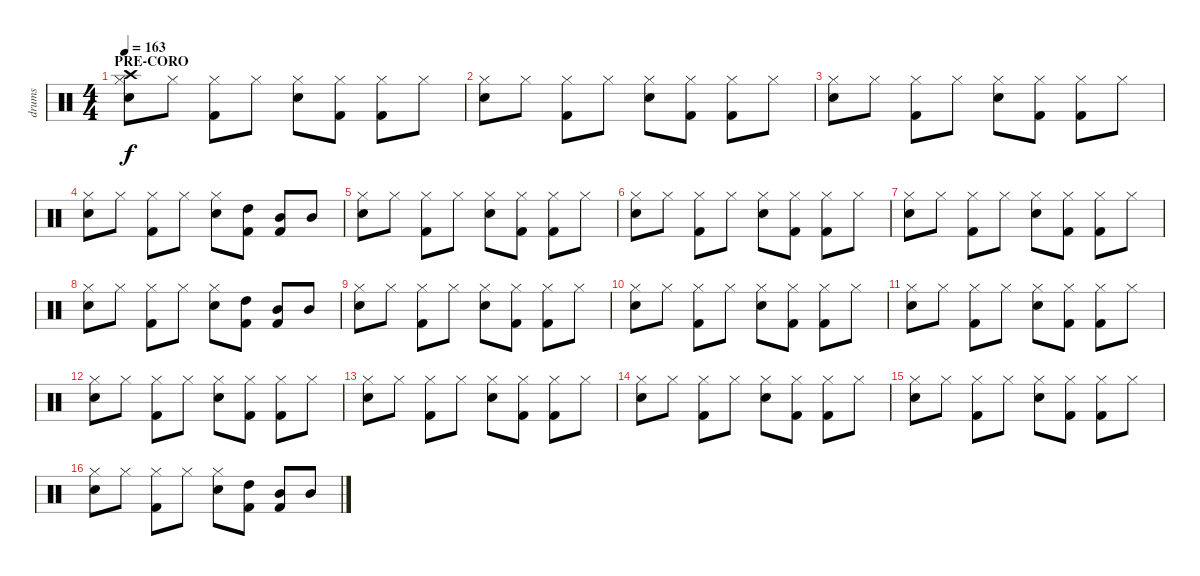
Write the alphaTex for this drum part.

\track ("drums" "drums") {instrument percussion}
\staff {score}
\articulation defaults
\ts (4 4)
\section ("" "PRE-CORO")
\tempo 163
\clef neutral
\ks c
("Crash high (hit)" "Hi-Hat (closed)" "Electric Snare (hit)").8{dy f} "Hi-Hat (closed)".8 ("Hi-Hat (closed)" "Kick (hit) 2").8 "Hi-Hat (closed)".8 ("Hi-Hat (closed)" "Electric Snare (hit)").8 ("Hi-Hat (closed)" "Kick (hit) 2").8 ("Hi-Hat (closed)" "Kick (hit) 2").8 "Hi-Hat (closed)".8 |
("Hi-Hat (closed)" "Electric Snare (hit)").8 "Hi-Hat (closed)".8 ("Hi-Hat (closed)" "Kick (hit) 2").8 "Hi-Hat (closed)".8 ("Hi-Hat (closed)" "Electric Snare (hit)").8 ("Hi-Hat (closed)" "Kick (hit) 2").8 ("Hi-Hat (closed)" "Kick (hit) 2").8 "Hi-Hat (closed)".8 |
("Hi-Hat (closed)" "Electric Snare (hit)").8 "Hi-Hat (closed)".8 ("Hi-Hat (closed)" "Kick (hit) 2").8 "Hi-Hat (closed)".8 ("Hi-Hat (closed)" "Electric Snare (hit)").8 ("Hi-Hat (closed)" "Kick (hit) 2").8 ("Hi-Hat (closed)" "Kick (hit) 2").8 "Hi-Hat (closed)".8 |
("Hi-Hat (closed)" "Electric Snare (hit)").8 "Hi-Hat (closed)".8 ("Hi-Hat (closed)" "Kick (hit) 2").8 "Hi-Hat (closed)".8 ("Hi-Hat (closed)" "Electric Snare (hit)").8 ("High Tom (hit)" "Kick (hit) 2").8 ("Mid Tom (hit)" "Kick (hit) 2").8 "Mid Tom (hit)".8 |
("Hi-Hat (closed)" "Electric Snare (hit)").8 "Hi-Hat (closed)".8 ("Hi-Hat (closed)" "Kick (hit) 2").8 "Hi-Hat (closed)".8 ("Hi-Hat (closed)" "Electric Snare (hit)").8 ("Hi-Hat (closed)" "Kick (hit) 2").8 ("Hi-Hat (closed)" "Kick (hit) 2").8 "Hi-Hat (closed)".8 |
("Hi-Hat (closed)" "Electric Snare (hit)").8 "Hi-Hat (closed)".8 ("Hi-Hat (closed)" "Kick (hit) 2").8 "Hi-Hat (closed)".8 ("Hi-Hat (closed)" "Electric Snare (hit)").8 ("Hi-Hat (closed)" "Kick (hit) 2").8 ("Hi-Hat (closed)" "Kick (hit) 2").8 "Hi-Hat (closed)".8 |
("Hi-Hat (closed)" "Electric Snare (hit)").8 "Hi-Hat (closed)".8 ("Hi-Hat (closed)" "Kick (hit) 2").8 "Hi-Hat (closed)".8 ("Hi-Hat (closed)" "Electric Snare (hit)").8 ("Hi-Hat (closed)" "Kick (hit) 2").8 ("Hi-Hat (closed)" "Kick (hit) 2").8 "Hi-Hat (closed)".8 |
("Hi-Hat (closed)" "Electric Snare (hit)").8 "Hi-Hat (closed)".8 ("Hi-Hat (closed)" "Kick (hit) 2").8 "Hi-Hat (closed)".8 ("Hi-Hat (closed)" "Electric Snare (hit)").8 ("High Tom (hit)" "Kick (hit) 2").8 ("Mid Tom (hit)" "Kick (hit) 2").8 "Mid Tom (hit)".8 |
("Hi-Hat (closed)" "Electric Snare (hit)").8 "Hi-Hat (closed)".8 ("Hi-Hat (closed)" "Kick (hit) 2").8 "Hi-Hat (closed)".8 ("Hi-Hat (closed)" "Electric Snare (hit)").8 ("Hi-Hat (closed)" "Kick (hit) 2").8 ("Hi-Hat (closed)" "Kick (hit) 2").8 "Hi-Hat (closed)".8 |
("Hi-Hat (closed)" "Electric Snare (hit)").8 "Hi-Hat (closed)".8 ("Hi-Hat (closed)" "Kick (hit) 2").8 "Hi-Hat (closed)".8 ("Hi-Hat (closed)" "Electric Snare (hit)").8 ("Hi-Hat (closed)" "Kick (hit) 2").8 ("Hi-Hat (closed)" "Kick (hit) 2").8 "Hi-Hat (closed)".8 |
("Hi-Hat (closed)" "Electric Snare (hit)").8 "Hi-Hat (closed)".8 ("Hi-Hat (closed)" "Kick (hit) 2").8 "Hi-Hat (closed)".8 ("Hi-Hat (closed)" "Electric Snare (hit)").8 ("Hi-Hat (closed)" "Kick (hit) 2").8 ("Hi-Hat (closed)" "Kick (hit) 2").8 "Hi-Hat (closed)".8 |
("Hi-Hat (closed)" "Electric Snare (hit)").8 "Hi-Hat (closed)".8 ("Hi-Hat (closed)" "Kick (hit) 2").8 "Hi-Hat (closed)".8 ("Hi-Hat (closed)" "Electric Snare (hit)").8 ("Hi-Hat (closed)" "Kick (hit) 2").8 ("Hi-Hat (closed)" "Kick (hit) 2").8 "Hi-Hat (closed)".8 |
("Hi-Hat (closed)" "Electric Snare (hit)").8 "Hi-Hat (closed)".8 ("Hi-Hat (closed)" "Kick (hit) 2").8 "Hi-Hat (closed)".8 ("Hi-Hat (closed)" "Electric Snare (hit)").8 ("Hi-Hat (closed)" "Kick (hit) 2").8 ("Hi-Hat (closed)" "Kick (hit) 2").8 "Hi-Hat (closed)".8 |
("Hi-Hat (closed)" "Electric Snare (hit)").8 "Hi-Hat (closed)".8 ("Hi-Hat (closed)" "Kick (hit) 2").8 "Hi-Hat (closed)".8 ("Hi-Hat (closed)" "Electric Snare (hit)").8 ("Hi-Hat (closed)" "Kick (hit) 2").8 ("Hi-Hat (closed)" "Kick (hit) 2").8 "Hi-Hat (closed)".8 |
("Hi-Hat (closed)" "Electric Snare (hit)").8 "Hi-Hat (closed)".8 ("Hi-Hat (closed)" "Kick (hit) 2").8 "Hi-Hat (closed)".8 ("Hi-Hat (closed)" "Electric Snare (hit)").8 ("Hi-Hat (closed)" "Kick (hit) 2").8 ("Hi-Hat (closed)" "Kick (hit) 2").8 "Hi-Hat (closed)".8 |
("Hi-Hat (closed)" "Electric Snare (hit)").8 "Hi-Hat (closed)".8 ("Hi-Hat (closed)" "Kick (hit) 2").8 "Hi-Hat (closed)".8 ("Hi-Hat (closed)" "Electric Snare (hit)").8 ("High Tom (hit)" "Kick (hit) 2").8 ("Mid Tom (hit)" "Kick (hit) 2").8 "Mid Tom (hit)".8
